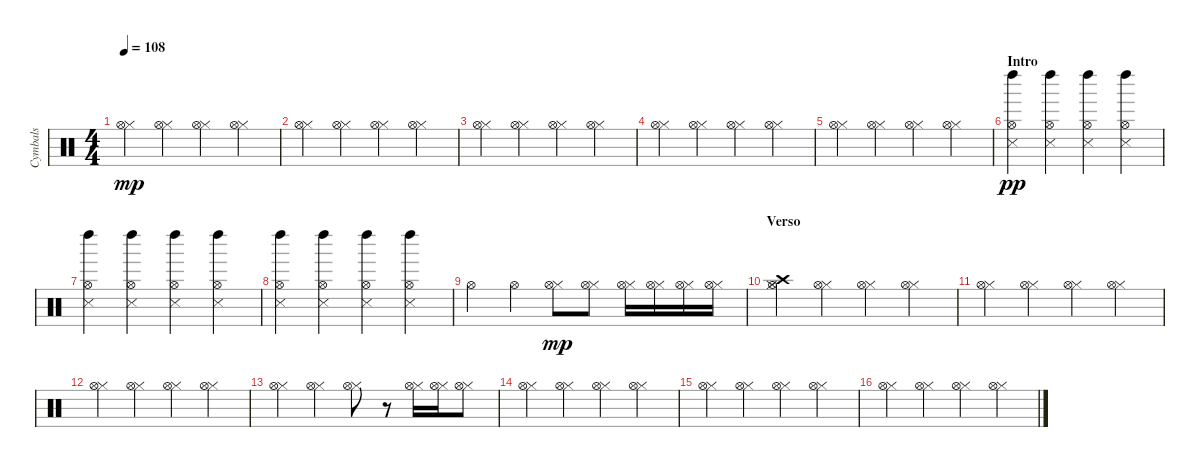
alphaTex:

\track ("Cymbals" "Cymbals") {instrument percussion}
\staff {score}
\articulation defaults
\ts (4 4)
\tempo 108
\clef neutral
\ks c
("Hi-Hat (closed)" "Hi-Hat (open)").4{dy mp} ("Hi-Hat (closed)" "Hi-Hat (open)").4 ("Hi-Hat (closed)" "Hi-Hat (open)").4 ("Hi-Hat (closed)" "Hi-Hat (open)").4 |
("Hi-Hat (closed)" "Hi-Hat (open)").4 ("Hi-Hat (closed)" "Hi-Hat (open)").4 ("Hi-Hat (closed)" "Hi-Hat (open)").4 ("Hi-Hat (closed)" "Hi-Hat (open)").4 |
("Hi-Hat (closed)" "Hi-Hat (open)").4 ("Hi-Hat (closed)" "Hi-Hat (open)").4 ("Hi-Hat (closed)" "Hi-Hat (open)").4 ("Hi-Hat (closed)" "Hi-Hat (open)").4 |
("Hi-Hat (closed)" "Hi-Hat (open)").4 ("Hi-Hat (closed)" "Hi-Hat (open)").4 ("Hi-Hat (closed)" "Hi-Hat (open)").4 ("Hi-Hat (closed)" "Hi-Hat (open)").4 |
("Hi-Hat (closed)" "Hi-Hat (open)").4 ("Hi-Hat (closed)" "Hi-Hat (open)").4 ("Hi-Hat (closed)" "Hi-Hat (open)").4 ("Hi-Hat (closed)" "Hi-Hat (open)").4 |
\section ("" "Intro")
("Hi-Hat (open)" "Left Maraca (hit)" "Snare (side stick) 3").4{dy pp} ("Hi-Hat (open)" "Left Maraca (hit)" "Snare (side stick) 3").4 ("Hi-Hat (open)" "Left Maraca (hit)" "Snare (side stick) 3").4 ("Hi-Hat (open)" "Left Maraca (hit)" "Snare (side stick) 3").4 |
("Hi-Hat (open)" "Left Maraca (hit)" "Snare (side stick) 3").4 ("Hi-Hat (open)" "Left Maraca (hit)" "Snare (side stick) 3").4 ("Hi-Hat (open)" "Left Maraca (hit)" "Snare (side stick) 3").4 ("Hi-Hat (open)" "Left Maraca (hit)" "Snare (side stick) 3").4 |
("Hi-Hat (open)" "Left Maraca (hit)" "Snare (side stick) 3").4 ("Hi-Hat (open)" "Left Maraca (hit)" "Snare (side stick) 3").4 ("Hi-Hat (open)" "Left Maraca (hit)" "Snare (side stick) 3").4 ("Hi-Hat (open)" "Left Maraca (hit)" "Snare (side stick) 3").4 |
"Hi-Hat (open)".4 "Hi-Hat (open)".4 ("Hi-Hat (closed)" "Hi-Hat (open)").8{dy mp} ("Hi-Hat (closed)" "Hi-Hat (open)").8 ("Hi-Hat (closed)" "Hi-Hat (open)").16 ("Hi-Hat (closed)" "Hi-Hat (open)").16 ("Hi-Hat (closed)" "Hi-Hat (open)").16 ("Hi-Hat (closed)" "Hi-Hat (open)").16 |
\section ("" "Verso")
("Crash high (hit)" "Hi-Hat (closed)" "Hi-Hat (open)").4 ("Hi-Hat (closed)" "Hi-Hat (open)").4 ("Hi-Hat (closed)" "Hi-Hat (open)").4 ("Hi-Hat (closed)" "Hi-Hat (open)").4 |
("Hi-Hat (closed)" "Hi-Hat (open)").4 ("Hi-Hat (closed)" "Hi-Hat (open)").4 ("Hi-Hat (closed)" "Hi-Hat (open)").4 ("Hi-Hat (closed)" "Hi-Hat (open)").4 |
("Hi-Hat (closed)" "Hi-Hat (open)").4 ("Hi-Hat (closed)" "Hi-Hat (open)").4 ("Hi-Hat (closed)" "Hi-Hat (open)").4 ("Hi-Hat (closed)" "Hi-Hat (open)").4 |
("Hi-Hat (closed)" "Hi-Hat (open)").4 ("Hi-Hat (closed)" "Hi-Hat (open)").4 ("Hi-Hat (closed)" "Hi-Hat (open)").8 r.8 ("Hi-Hat (closed)" "Hi-Hat (open)").16 ("Hi-Hat (closed)" "Hi-Hat (open)").16 ("Hi-Hat (closed)" "Hi-Hat (open)").8 |
("Hi-Hat (closed)" "Hi-Hat (open)").4 ("Hi-Hat (closed)" "Hi-Hat (open)").4 ("Hi-Hat (closed)" "Hi-Hat (open)").4 ("Hi-Hat (closed)" "Hi-Hat (open)").4 |
("Hi-Hat (closed)" "Hi-Hat (open)").4 ("Hi-Hat (closed)" "Hi-Hat (open)").4 ("Hi-Hat (closed)" "Hi-Hat (open)").4 ("Hi-Hat (closed)" "Hi-Hat (open)").4 |
("Hi-Hat (closed)" "Hi-Hat (open)").4 ("Hi-Hat (closed)" "Hi-Hat (open)").4 ("Hi-Hat (closed)" "Hi-Hat (open)").4 ("Hi-Hat (closed)" "Hi-Hat (open)").4
